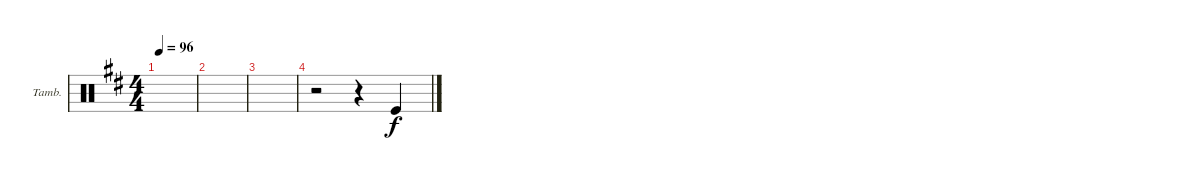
\defaultSystemsLayout 4
\bracketExtendMode groupsimilarinstruments
\firstSystemTrackNameOrientation horizontal
\otherSystemsTrackNameOrientation horizontal
\track ("Tambourine" "Tamb.") {instrument percussion}
\staff {score}
\articulation defaults
\ts (4 4)
\tempo 96
\clef neutral
\scale
0.517241
\ks d
|
\scale
0.241379 |
\scale
0.241379 |
r.2 r.4 "Kick (hit)".4
